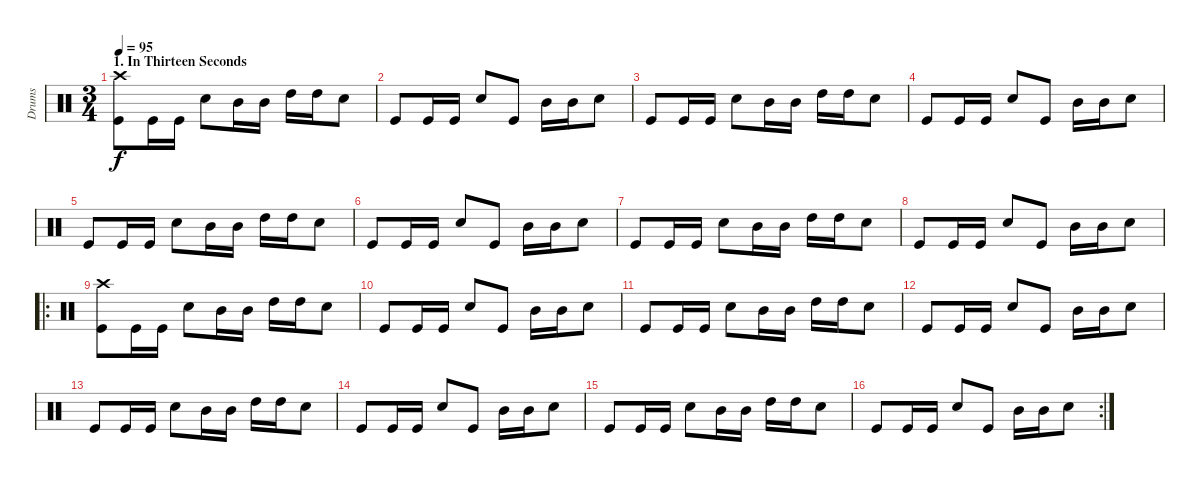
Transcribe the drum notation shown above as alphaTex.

\track ("Drums" "Drums") {instrument percussion}
\staff {score}
\articulation defaults
\ts (3 4)
\section ("" "1. In Thirteen Seconds")
\tempo 95
\clef neutral
\ks c
("Crash high (hit)" "Kick (hit)").8{dy f} "Kick (hit)".16 "Kick (hit)".16 "Snare (hit) 2".8 "Mid Tom (hit)".16 "Mid Tom (hit)".16 "High Tom (hit)".16 "High Tom (hit)".16 "Snare (hit) 2".8 |
"Kick (hit)".8 "Kick (hit)".16 "Kick (hit)".16 "Snare (hit) 2".8 "Kick (hit)".8 "Mid Tom (hit)".16 "Mid Tom (hit)".16 "Snare (hit) 2".8 |
"Kick (hit)".8 "Kick (hit)".16 "Kick (hit)".16 "Snare (hit) 2".8 "Mid Tom (hit)".16 "Mid Tom (hit)".16 "High Tom (hit)".16 "High Tom (hit)".16 "Snare (hit) 2".8 |
"Kick (hit)".8 "Kick (hit)".16 "Kick (hit)".16 "Snare (hit) 2".8 "Kick (hit)".8 "Mid Tom (hit)".16 "Mid Tom (hit)".16 "Snare (hit) 2".8 |
"Kick (hit)".8 "Kick (hit)".16 "Kick (hit)".16 "Snare (hit) 2".8 "Mid Tom (hit)".16 "Mid Tom (hit)".16 "High Tom (hit)".16 "High Tom (hit)".16 "Snare (hit) 2".8 |
"Kick (hit)".8 "Kick (hit)".16 "Kick (hit)".16 "Snare (hit) 2".8 "Kick (hit)".8 "Mid Tom (hit)".16 "Mid Tom (hit)".16 "Snare (hit) 2".8 |
"Kick (hit)".8 "Kick (hit)".16 "Kick (hit)".16 "Snare (hit) 2".8 "Mid Tom (hit)".16 "Mid Tom (hit)".16 "High Tom (hit)".16 "High Tom (hit)".16 "Snare (hit) 2".8 |
"Kick (hit)".8 "Kick (hit)".16 "Kick (hit)".16 "Snare (hit) 2".8 "Kick (hit)".8 "Mid Tom (hit)".16 "Mid Tom (hit)".16 "Snare (hit) 2".8 |
\ro
("Crash high (hit)" "Kick (hit)").8 "Kick (hit)".16 "Kick (hit)".16 "Snare (hit) 2".8 "Mid Tom (hit)".16 "Mid Tom (hit)".16 "High Tom (hit)".16 "High Tom (hit)".16 "Snare (hit) 2".8 |
"Kick (hit)".8 "Kick (hit)".16 "Kick (hit)".16 "Snare (hit) 2".8 "Kick (hit)".8 "Mid Tom (hit)".16 "Mid Tom (hit)".16 "Snare (hit) 2".8 |
"Kick (hit)".8 "Kick (hit)".16 "Kick (hit)".16 "Snare (hit) 2".8 "Mid Tom (hit)".16 "Mid Tom (hit)".16 "High Tom (hit)".16 "High Tom (hit)".16 "Snare (hit) 2".8 |
"Kick (hit)".8 "Kick (hit)".16 "Kick (hit)".16 "Snare (hit) 2".8 "Kick (hit)".8 "Mid Tom (hit)".16 "Mid Tom (hit)".16 "Snare (hit) 2".8 |
"Kick (hit)".8 "Kick (hit)".16 "Kick (hit)".16 "Snare (hit) 2".8 "Mid Tom (hit)".16 "Mid Tom (hit)".16 "High Tom (hit)".16 "High Tom (hit)".16 "Snare (hit) 2".8 |
"Kick (hit)".8 "Kick (hit)".16 "Kick (hit)".16 "Snare (hit) 2".8 "Kick (hit)".8 "Mid Tom (hit)".16 "Mid Tom (hit)".16 "Snare (hit) 2".8 |
"Kick (hit)".8 "Kick (hit)".16 "Kick (hit)".16 "Snare (hit) 2".8 "Mid Tom (hit)".16 "Mid Tom (hit)".16 "High Tom (hit)".16 "High Tom (hit)".16 "Snare (hit) 2".8 |
\rc 2 "Kick (hit)".8 "Kick (hit)".16 "Kick (hit)".16 "Snare (hit) 2".8 "Kick (hit)".8 "Mid Tom (hit)".16 "Mid Tom (hit)".16 "Snare (hit) 2".8
